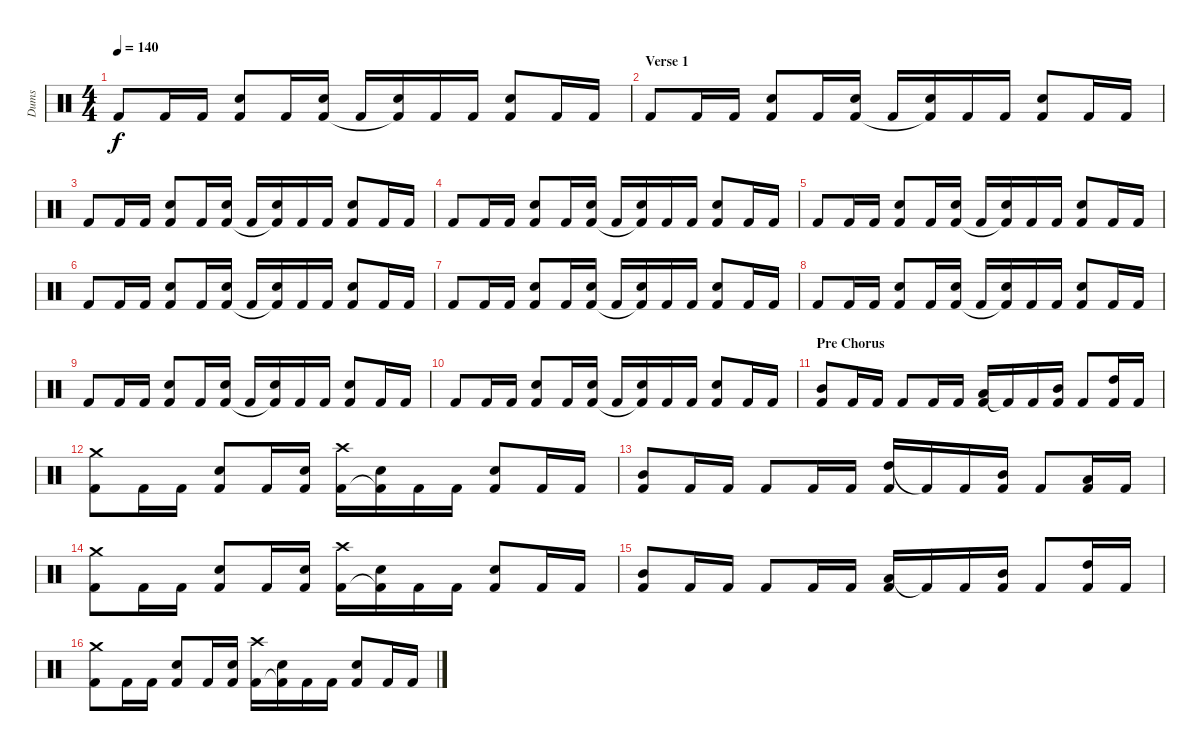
\track ("Dums" "Dums") {instrument percussion}
\staff {score}
\articulation defaults
\ts (4 4)
\tempo 140
\clef neutral
\ks c "Kick (hit) 2".8{dy f} "Kick (hit) 2".16 "Kick (hit) 2".16
("Snare (hit) 2" "Kick (hit) 2").8 "Kick (hit) 2".16 ("Snare (hit) 2" "Kick (hit) 2").16 "Kick (hit) 2".16 ("Snare (hit) 2" "Kick (hit) 2"{t}).16 "Kick (hit) 2".16 "Kick (hit) 2".16 ("Snare (hit) 2" "Kick (hit) 2").8 "Kick (hit) 2".16 "Kick (hit) 2".16 |
\section ("" "Verse 1")
"Kick (hit) 2".8 "Kick (hit) 2".16 "Kick (hit) 2".16 ("Snare (hit) 2" "Kick (hit) 2").8 "Kick (hit) 2".16 ("Snare (hit) 2" "Kick (hit) 2").16 "Kick (hit) 2".16 ("Snare (hit) 2" "Kick (hit) 2"{t}).16 "Kick (hit) 2".16 "Kick (hit) 2".16 ("Snare (hit) 2" "Kick (hit) 2").8 "Kick (hit) 2".16 "Kick (hit) 2".16 |
"Kick (hit) 2".8 "Kick (hit) 2".16 "Kick (hit) 2".16 ("Snare (hit) 2" "Kick (hit) 2").8 "Kick (hit) 2".16 ("Snare (hit) 2" "Kick (hit) 2").16 "Kick (hit) 2".16 ("Snare (hit) 2" "Kick (hit) 2"{t}).16 "Kick (hit) 2".16 "Kick (hit) 2".16 ("Snare (hit) 2" "Kick (hit) 2").8 "Kick (hit) 2".16 "Kick (hit) 2".16 |
"Kick (hit) 2".8 "Kick (hit) 2".16 "Kick (hit) 2".16 ("Snare (hit) 2" "Kick (hit) 2").8 "Kick (hit) 2".16 ("Snare (hit) 2" "Kick (hit) 2").16 "Kick (hit) 2".16 ("Snare (hit) 2" "Kick (hit) 2"{t}).16 "Kick (hit) 2".16 "Kick (hit) 2".16 ("Snare (hit) 2" "Kick (hit) 2").8 "Kick (hit) 2".16 "Kick (hit) 2".16 |
"Kick (hit) 2".8 "Kick (hit) 2".16 "Kick (hit) 2".16 ("Snare (hit) 2" "Kick (hit) 2").8 "Kick (hit) 2".16 ("Snare (hit) 2" "Kick (hit) 2").16 "Kick (hit) 2".16 ("Snare (hit) 2" "Kick (hit) 2"{t}).16 "Kick (hit) 2".16 "Kick (hit) 2".16 ("Snare (hit) 2" "Kick (hit) 2").8 "Kick (hit) 2".16 "Kick (hit) 2".16 |
"Kick (hit) 2".8 "Kick (hit) 2".16 "Kick (hit) 2".16 ("Snare (hit) 2" "Kick (hit) 2").8 "Kick (hit) 2".16 ("Snare (hit) 2" "Kick (hit) 2").16 "Kick (hit) 2".16 ("Snare (hit) 2" "Kick (hit) 2"{t}).16 "Kick (hit) 2".16 "Kick (hit) 2".16 ("Snare (hit) 2" "Kick (hit) 2").8 "Kick (hit) 2".16 "Kick (hit) 2".16 |
"Kick (hit) 2".8 "Kick (hit) 2".16 "Kick (hit) 2".16 ("Snare (hit) 2" "Kick (hit) 2").8 "Kick (hit) 2".16 ("Snare (hit) 2" "Kick (hit) 2").16 "Kick (hit) 2".16 ("Snare (hit) 2" "Kick (hit) 2"{t}).16 "Kick (hit) 2".16 "Kick (hit) 2".16 ("Snare (hit) 2" "Kick (hit) 2").8 "Kick (hit) 2".16 "Kick (hit) 2".16 |
"Kick (hit) 2".8 "Kick (hit) 2".16 "Kick (hit) 2".16 ("Snare (hit) 2" "Kick (hit) 2").8 "Kick (hit) 2".16 ("Snare (hit) 2" "Kick (hit) 2").16 "Kick (hit) 2".16 ("Snare (hit) 2" "Kick (hit) 2"{t}).16 "Kick (hit) 2".16 "Kick (hit) 2".16 ("Snare (hit) 2" "Kick (hit) 2").8 "Kick (hit) 2".16 "Kick (hit) 2".16 |
"Kick (hit) 2".8 "Kick (hit) 2".16 "Kick (hit) 2".16 ("Snare (hit) 2" "Kick (hit) 2").8 "Kick (hit) 2".16 ("Snare (hit) 2" "Kick (hit) 2").16 "Kick (hit) 2".16 ("Snare (hit) 2" "Kick (hit) 2"{t}).16 "Kick (hit) 2".16 "Kick (hit) 2".16 ("Snare (hit) 2" "Kick (hit) 2").8 "Kick (hit) 2".16 "Kick (hit) 2".16 |
"Kick (hit) 2".8 "Kick (hit) 2".16 "Kick (hit) 2".16 ("Snare (hit) 2" "Kick (hit) 2").8 "Kick (hit) 2".16 ("Snare (hit) 2" "Kick (hit) 2").16 "Kick (hit) 2".16 ("Snare (hit) 2" "Kick (hit) 2"{t}).16 "Kick (hit) 2".16 "Kick (hit) 2".16 ("Snare (hit) 2" "Kick (hit) 2").8 "Kick (hit) 2".16 "Kick (hit) 2".16 |
\section ("" "Pre Chorus")
("Mid Tom (hit)" "Kick (hit) 2").8 "Kick (hit) 2".16 "Kick (hit) 2".16 "Kick (hit) 2".8 "Kick (hit) 2".16 "Kick (hit) 2".16 ("Low Tom (hit)" "Kick (hit) 2").16 "Kick (hit) 2"{t}.16 "Kick (hit) 2".16 ("Mid Tom (hit)" "Kick (hit) 2").16 "Kick (hit) 2".8 ("High Tom (hit)" "Kick (hit) 2").16 "Kick (hit) 2".16 |
("Crash medium (hit)" "Kick (hit) 2").8 "Kick (hit) 2".16 "Kick (hit) 2".16 ("Snare (hit) 2" "Kick (hit) 2").8 "Kick (hit) 2".16 ("Snare (hit) 2" "Kick (hit) 2").16 ("Crash high (hit)" "Kick (hit) 2").16 ("Snare (hit) 2" "Kick (hit) 2"{t}).16 "Kick (hit) 2".16 "Kick (hit) 2".16 ("Snare (hit) 2" "Kick (hit) 2").8 "Kick (hit) 2".16 "Kick (hit) 2".16 |
("Mid Tom (hit)" "Kick (hit) 2").8 "Kick (hit) 2".16 "Kick (hit) 2".16 "Kick (hit) 2".8 "Kick (hit) 2".16 "Kick (hit) 2".16 ("High Tom (hit)" "Kick (hit) 2").16 "Kick (hit) 2"{t}.16 "Kick (hit) 2".16 ("Mid Tom (hit)" "Kick (hit) 2").16 "Kick (hit) 2".8 ("Low Tom (hit)" "Kick (hit) 2").16 "Kick (hit) 2".16 |
("Crash medium (hit)" "Kick (hit) 2").8 "Kick (hit) 2".16 "Kick (hit) 2".16 ("Snare (hit) 2" "Kick (hit) 2").8 "Kick (hit) 2".16 ("Snare (hit) 2" "Kick (hit) 2").16 ("Crash high (hit)" "Kick (hit) 2").16 ("Snare (hit) 2" "Kick (hit) 2"{t}).16 "Kick (hit) 2".16 "Kick (hit) 2".16 ("Snare (hit) 2" "Kick (hit) 2").8 "Kick (hit) 2".16 "Kick (hit) 2".16 |
("Mid Tom (hit)" "Kick (hit) 2").8 "Kick (hit) 2".16 "Kick (hit) 2".16 "Kick (hit) 2".8 "Kick (hit) 2".16 "Kick (hit) 2".16 ("Low Tom (hit)" "Kick (hit) 2").16 "Kick (hit) 2"{t}.16 "Kick (hit) 2".16 ("Mid Tom (hit)" "Kick (hit) 2").16 "Kick (hit) 2".8 ("High Tom (hit)" "Kick (hit) 2").16 "Kick (hit) 2".16 |
("Crash medium (hit)" "Kick (hit) 2").8 "Kick (hit) 2".16 "Kick (hit) 2".16 ("Snare (hit) 2" "Kick (hit) 2").8 "Kick (hit) 2".16 ("Snare (hit) 2" "Kick (hit) 2").16 ("Crash high (hit)" "Kick (hit) 2").16 ("Snare (hit) 2" "Kick (hit) 2"{t}).16 "Kick (hit) 2".16 "Kick (hit) 2".16 ("Snare (hit) 2" "Kick (hit) 2").8 "Kick (hit) 2".16 "Kick (hit) 2".16
